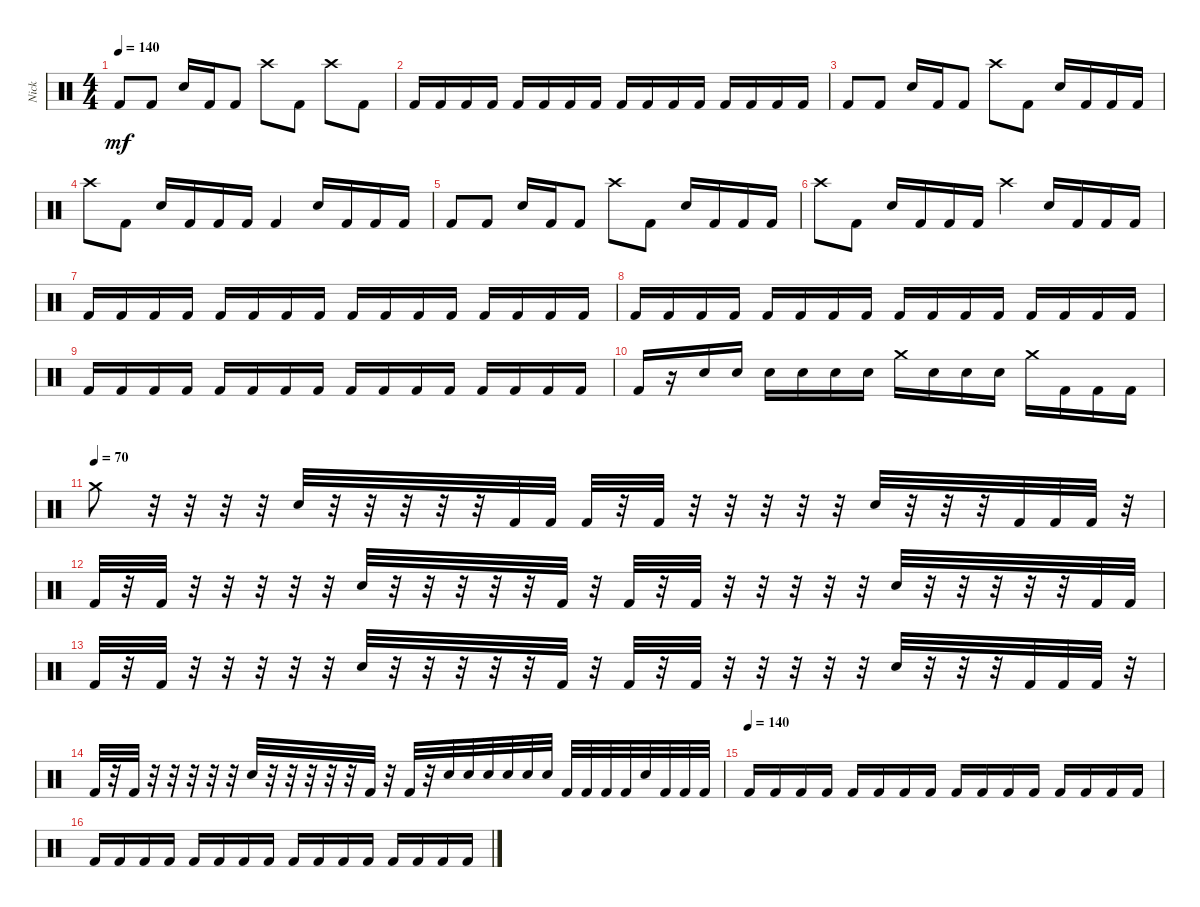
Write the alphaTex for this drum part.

\track ("Nick " "Nick ") {instrument percussion}
\staff {score}
\articulation defaults
\ts (4 4)
\tempo 140
\clef neutral
\ks c "Kick (hit) 2".8{dy mf} "Kick (hit) 2".8 "Snare (hit) 2".16 "Kick (hit) 2".16 "Kick (hit) 2".8 "Crash high (hit)".8 "Kick (hit) 2".8 "Crash high (hit)".8 "Kick (hit) 2".8
|
"Kick (hit) 2".16 "Kick (hit) 2".16 "Kick (hit) 2".16 "Kick (hit) 2".16 "Kick (hit) 2".16 "Kick (hit) 2".16 "Kick (hit) 2".16 "Kick (hit) 2".16 "Kick (hit) 2".16 "Kick (hit) 2".16 "Kick (hit) 2".16 "Kick (hit) 2".16 "Kick (hit) 2".16 "Kick (hit) 2".16 "Kick (hit) 2".16 "Kick (hit) 2".16 |
"Kick (hit) 2".8 "Kick (hit) 2".8 "Snare (hit) 2".16 "Kick (hit) 2".16 "Kick (hit) 2".8 "Crash high (hit)".8 "Kick (hit) 2".8 "Snare (hit) 2".16 "Kick (hit) 2".16 "Kick (hit) 2".16 "Kick (hit) 2".16 |
"Crash high (hit)".8 "Kick (hit) 2".8 "Snare (hit) 2".16 "Kick (hit) 2".16 "Kick (hit) 2".16 "Kick (hit) 2".16 "Kick (hit) 2".4 "Snare (hit) 2".16 "Kick (hit) 2".16 "Kick (hit) 2".16 "Kick (hit) 2".16 |
"Kick (hit) 2".8 "Kick (hit) 2".8 "Snare (hit) 2".16 "Kick (hit) 2".16 "Kick (hit) 2".8 "Crash high (hit)".8 "Kick (hit) 2".8 "Snare (hit) 2".16 "Kick (hit) 2".16 "Kick (hit) 2".16 "Kick (hit) 2".16 |
"Crash high (hit)".8 "Kick (hit) 2".8 "Snare (hit) 2".16 "Kick (hit) 2".16 "Kick (hit) 2".16 "Kick (hit) 2".16 "Crash high (hit)".4 "Snare (hit) 2".16 "Kick (hit) 2".16 "Kick (hit) 2".16 "Kick (hit) 2".16 |
"Kick (hit) 2".16 "Kick (hit) 2".16 "Kick (hit) 2".16 "Kick (hit) 2".16 "Kick (hit) 2".16 "Kick (hit) 2".16 "Kick (hit) 2".16 "Kick (hit) 2".16 "Kick (hit) 2".16 "Kick (hit) 2".16 "Kick (hit) 2".16 "Kick (hit) 2".16 "Kick (hit) 2".16 "Kick (hit) 2".16 "Kick (hit) 2".16 "Kick (hit) 2".16 |
"Kick (hit) 2".16 "Kick (hit) 2".16 "Kick (hit) 2".16 "Kick (hit) 2".16 "Kick (hit) 2".16 "Kick (hit) 2".16 "Kick (hit) 2".16 "Kick (hit) 2".16 "Kick (hit) 2".16 "Kick (hit) 2".16 "Kick (hit) 2".16 "Kick (hit) 2".16 "Kick (hit) 2".16 "Kick (hit) 2".16 "Kick (hit) 2".16 "Kick (hit) 2".16 |
"Kick (hit) 2".16 "Kick (hit) 2".16 "Kick (hit) 2".16 "Kick (hit) 2".16 "Kick (hit) 2".16 "Kick (hit) 2".16 "Kick (hit) 2".16 "Kick (hit) 2".16 "Kick (hit) 2".16 "Kick (hit) 2".16 "Kick (hit) 2".16 "Kick (hit) 2".16 "Kick (hit) 2".16 "Kick (hit) 2".16 "Kick (hit) 2".16 "Kick (hit) 2".16 |
"Kick (hit) 2".16 r.16 "Snare (hit) 2".16 "Snare (hit) 2".16 "Snare (hit) 2".16 "Snare (hit) 2".16 "Snare (hit) 2".16 "Snare (hit) 2".16 "Crash medium (hit)".16 "Snare (hit) 2".16 "Snare (hit) 2".16 "Snare (hit) 2".16 "Crash medium (hit)".16 "Kick (hit) 2".16 "Kick (hit) 2".16 "Kick (hit) 2".16 |
\tempo (70)
"Crash medium (hit)".8 r.32 r.32 r.32 r.32 "Snare (hit) 2".32 r.32 r.32 r.32 r.32 r.32 "Kick (hit) 2".32 "Kick (hit) 2".32 "Kick (hit) 2".32 r.32 "Kick (hit) 2".32 r.32 r.32 r.32 r.32 r.32 "Snare (hit) 2".32 r.32 r.32 r.32 "Kick (hit) 2".32 "Kick (hit) 2".32 "Kick (hit) 2".32 r.32 |
"Kick (hit) 2".32 r.32 "Kick (hit) 2".32 r.32 r.32 r.32 r.32 r.32 "Snare (hit) 2".32 r.32 r.32 r.32 r.32 r.32 "Kick (hit) 2".32 r.32 "Kick (hit) 2".32 r.32 "Kick (hit) 2".32 r.32 r.32 r.32 r.32 r.32 "Snare (hit) 2".32 r.32 r.32 r.32 r.32 r.32 "Kick (hit) 2".32 "Kick (hit) 2".32 |
"Kick (hit) 2".32 r.32 "Kick (hit) 2".32 r.32 r.32 r.32 r.32 r.32 "Snare (hit) 2".32 r.32 r.32 r.32 r.32 r.32 "Kick (hit) 2".32 r.32 "Kick (hit) 2".32 r.32 "Kick (hit) 2".32 r.32 r.32 r.32 r.32 r.32 "Snare (hit) 2".32 r.32 r.32 r.32 "Kick (hit) 2".32 "Kick (hit) 2".32 "Kick (hit) 2".32 r.32 |
"Kick (hit) 2".32 r.32 "Kick (hit) 2".32 r.32 r.32 r.32 r.32 r.32 "Snare (hit) 2".32 r.32 r.32 r.32 r.32 r.32 "Kick (hit) 2".32 r.32 "Kick (hit) 2".32 r.32 "Snare (hit) 2".32 "Snare (hit) 2".32 "Snare (hit) 2".32 "Snare (hit) 2".32 "Snare (hit) 2".32 "Snare (hit) 2".32 "Kick (hit) 2".32 "Kick (hit) 2".32 "Kick (hit) 2".32 "Kick (hit) 2".32 "Snare (hit) 2".32 "Kick (hit) 2".32 "Kick (hit) 2".32 "Kick (hit) 2".32 |
\tempo (140)
"Kick (hit) 2".16 "Kick (hit) 2".16 "Kick (hit) 2".16 "Kick (hit) 2".16 "Kick (hit) 2".16 "Kick (hit) 2".16 "Kick (hit) 2".16 "Kick (hit) 2".16 "Kick (hit) 2".16 "Kick (hit) 2".16 "Kick (hit) 2".16 "Kick (hit) 2".16 "Kick (hit) 2".16 "Kick (hit) 2".16 "Kick (hit) 2".16 "Kick (hit) 2".16 |
"Kick (hit) 2".16 "Kick (hit) 2".16 "Kick (hit) 2".16 "Kick (hit) 2".16 "Kick (hit) 2".16 "Kick (hit) 2".16 "Kick (hit) 2".16 "Kick (hit) 2".16 "Kick (hit) 2".16 "Kick (hit) 2".16 "Kick (hit) 2".16 "Kick (hit) 2".16 "Kick (hit) 2".16 "Kick (hit) 2".16 "Kick (hit) 2".16 "Kick (hit) 2".16
